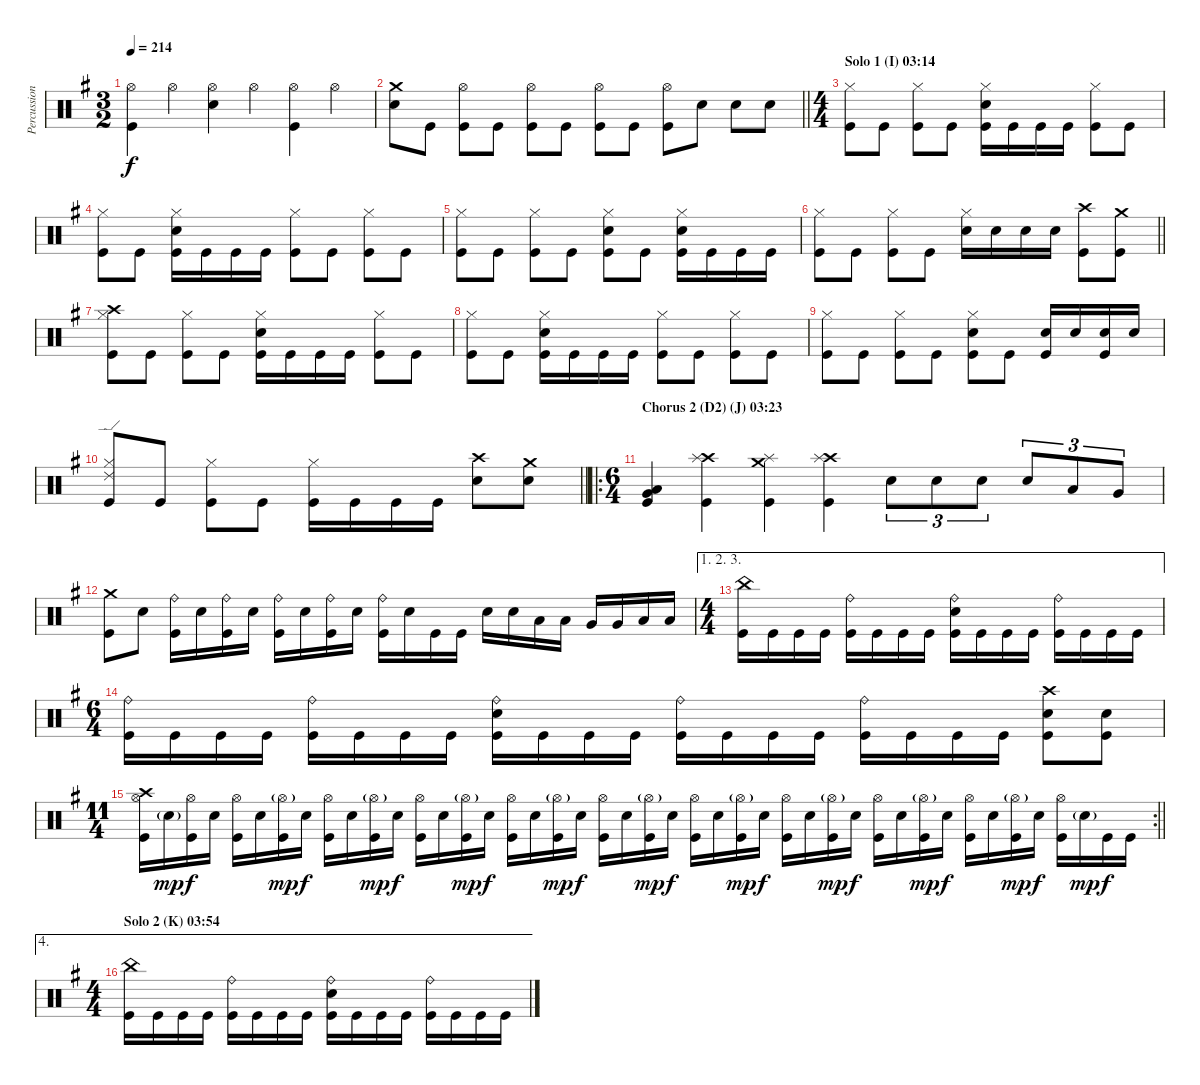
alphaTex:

\track ("Percussion" "Percussion") {instrument percussion}
\staff {score}
\articulation defaults
\ts (3 2)
\tempo 214
\clef neutral
\ks eminor
("Hi-Hat (open)" "Kick (hit)").4{dy f} "Hi-Hat (open)".4 ("Hi-Hat (open)" "Snare (hit) 2").4 "Hi-Hat (open)".4 ("Hi-Hat (open)" "Kick (hit)").4 "Hi-Hat (open)".4 |
\barLineRight lightlight
("Crash medium (hit)" "Snare (hit) 2").8 "Kick (hit)".8 ("Hi-Hat (open)" "Kick (hit)").8 "Kick (hit)".8 ("Hi-Hat (open)" "Kick (hit)").8 "Kick (hit)".8 ("Hi-Hat (open)" "Kick (hit)").8 "Kick (hit)".8 ("Hi-Hat (open)" "Kick (hit)").8 "Snare (hit) 2".8 "Snare (hit) 2".8 "Snare (hit) 2".8 |
\ts (4 4)
\section ("" "Solo 1 (I) 03:14")
("Hi-Hat (closed)" "Kick (hit)").8 "Kick (hit)".8 ("Hi-Hat (closed)" "Kick (hit)").8 "Kick (hit)".8 ("Hi-Hat (closed)" "Snare (hit) 2" "Kick (hit)").16 "Kick (hit)".16 "Kick (hit)".16 "Kick (hit)".16 ("Hi-Hat (closed)" "Kick (hit)").8 "Kick (hit)".8 |
("Hi-Hat (closed)" "Kick (hit)").8 "Kick (hit)".8 ("Hi-Hat (closed)" "Snare (hit) 2" "Kick (hit)").16 "Kick (hit)".16 "Kick (hit)".16 "Kick (hit)".16 ("Hi-Hat (closed)" "Kick (hit)").8 "Kick (hit)".8 ("Hi-Hat (closed)" "Kick (hit)").8 "Kick (hit)".8 |
("Hi-Hat (closed)" "Kick (hit)").8 "Kick (hit)".8 ("Hi-Hat (closed)" "Kick (hit)").8 "Kick (hit)".8 ("Hi-Hat (closed)" "Snare (hit) 2" "Kick (hit)").8 "Kick (hit)".8 ("Hi-Hat (closed)" "Snare (hit) 2" "Kick (hit)").16 "Kick (hit)".16 "Kick (hit)".16 "Kick (hit)".16 |
\barLineRight lightlight
("Hi-Hat (closed)" "Kick (hit)").8 "Kick (hit)".8 ("Hi-Hat (closed)" "Kick (hit)").8 "Kick (hit)".8 ("Hi-Hat (closed)" "Snare (hit) 2").16 "Snare (hit) 2".16 "Snare (hit) 2".16 "Snare (hit) 2".16 ("Crash high (hit)" "Kick (hit)").8 ("Crash medium (hit)" "Kick (hit)").8 |
("Crash high (hit)" "Hi-Hat (closed)" "Kick (hit)").8 "Kick (hit)".8 ("Hi-Hat (closed)" "Kick (hit)").8 "Kick (hit)".8 ("Hi-Hat (closed)" "Snare (hit) 2" "Kick (hit)").16 "Kick (hit)".16 "Kick (hit)".16 "Kick (hit)".16 ("Hi-Hat (closed)" "Kick (hit)").8 "Kick (hit)".8 |
("Hi-Hat (closed)" "Kick (hit)").8 "Kick (hit)".8 ("Hi-Hat (closed)" "Snare (hit) 2" "Kick (hit)").16 "Kick (hit)".16 "Kick (hit)".16 "Kick (hit)".16 ("Hi-Hat (closed)" "Kick (hit)").8 "Kick (hit)".8 ("Hi-Hat (closed)" "Kick (hit)").8 "Kick (hit)".8 |
("Hi-Hat (closed)" "Kick (hit)").8 "Kick (hit)".8 ("Hi-Hat (closed)" "Kick (hit)").8 "Kick (hit)".8 ("Hi-Hat (closed)" "Snare (hit) 2" "Kick (hit)").8 "Kick (hit)".8 ("Snare (hit) 2" "Kick (hit)").16 "Snare (hit) 2".16 ("Snare (hit) 2" "Kick (hit)").16 "Snare (hit) 2".16 |
\barLineRight lightlight
("Ride (edge) 2" "Hi-Hat (closed)" "Kick (hit)").8 "Kick (hit)".8 ("Hi-Hat (closed)" "Kick (hit)").8 "Kick (hit)".8 ("Hi-Hat (closed)" "Kick (hit)").16 "Kick (hit)".16 "Kick (hit)".16 "Kick (hit)".16 ("Crash high (hit)" "Snare (hit) 2").8 ("Crash medium (hit)" "Snare (hit) 2").8 |
\ro
\ts (6 4)
\section ("" "Chorus 2 (D2) (J) 03:23")
("Very Low Tom (hit)" "Low Floor Tom (hit)" "Kick (hit)").4 ("Crash high (hit)" "Splash (hit)" "Kick (hit)").4 ("Crash medium (hit)" "Splash (hit)" "Kick (hit)").4 ("Crash high (hit)" "Splash (hit)" "Kick (hit)").4 "Snare (hit) 2".8{tu (3 2)} "Snare (hit) 2".8{tu (3 2)} "Snare (hit) 2".8{tu (3 2)} "Snare (hit) 2".8{tu (3 2)} "Low Tom (hit)".8{tu (3 2)} "Very Low Tom (hit)".8{tu (3 2)} |
("Crash medium (hit)" "Kick (hit)").8 "Snare (hit) 2".8 ("Ride (bell)" "Kick (hit)").16 "Snare (hit) 2".16 ("Ride (bell)" "Kick (hit)").16 "Snare (hit) 2".16 ("Ride (bell)" "Kick (hit)").16 "Snare (hit) 2".16 ("Ride (bell)" "Kick (hit)").16 "Snare (hit) 2".16 ("Ride (bell)" "Kick (hit)").16 "Snare (hit) 2".16 "Kick (hit)".16 "Kick (hit)".16 "Snare (hit) 2".16 "Snare (hit) 2".16 "Low Tom (hit)".16 "Low Tom (hit)".16 "Very Low Tom (hit)".16 "Very Low Tom (hit)".16 "Low Floor Tom (hit)".16 "Low Floor Tom (hit)".16 |
\ae (1 2 3)
\ts (4 4)
("China (hit)" "Kick (hit)").16 "Kick (hit)".16 "Kick (hit)".16 "Kick (hit)".16 ("Ride (bell)" "Kick (hit)").16 "Kick (hit)".16 "Kick (hit)".16 "Kick (hit)".16 ("Ride (bell)" "Snare (hit) 2" "Kick (hit)").16 "Kick (hit)".16 "Kick (hit)".16 "Kick (hit)".16 ("Ride (bell)" "Kick (hit)").16 "Kick (hit)".16 "Kick (hit)".16 "Kick (hit)".16 |
\ts (6 4)
("Ride (bell)" "Kick (hit)").16 "Kick (hit)".16 "Kick (hit)".16 "Kick (hit)".16 ("Ride (bell)" "Kick (hit)").16 "Kick (hit)".16 "Kick (hit)".16 "Kick (hit)".16 ("Ride (bell)" "Snare (hit) 2" "Kick (hit)").16 "Kick (hit)".16 "Kick (hit)".16 "Kick (hit)".16 ("Ride (bell)" "Kick (hit)").16 "Kick (hit)".16 "Kick (hit)".16 "Kick (hit)".16 ("Ride (bell)" "Kick (hit)").16 "Kick (hit)".16 "Kick (hit)".16 "Kick (hit)".16 ("Crash high (hit)" "Snare (hit) 2" "Kick (hit)").8 ("Snare (hit) 2" "Kick (hit)").8 |
\rc 2
\ts (11 4)
\barLineRight lightlight
("Crash high (hit)" "Hi-Hat (open)" "Kick (hit)").16 "Snare (hit) 2"{g}.16{dy mp} ("Hi-Hat (open)" "Kick (hit)").16{dy f} "Snare (hit) 2".16 ("Hi-Hat (open)" "Kick (hit)").16 "Snare (hit) 2".16 ("Hi-Hat (open)"{g} "Kick (hit)").16{dy mp} "Snare (hit) 2".16{dy f} ("Hi-Hat (open)" "Kick (hit)").16 "Snare (hit) 2".16 ("Hi-Hat (open)"{g} "Kick (hit)").16{dy mp} "Snare (hit) 2".16{dy f} ("Hi-Hat (open)" "Kick (hit)").16 "Snare (hit) 2".16 ("Hi-Hat (open)"{g} "Kick (hit)").16{dy mp} "Snare (hit) 2".16{dy f} ("Hi-Hat (open)" "Kick (hit)").16 "Snare (hit) 2".16 ("Hi-Hat (open)"{g} "Kick (hit)").16{dy mp} "Snare (hit) 2".16{dy f} ("Hi-Hat (open)" "Kick (hit)").16 "Snare (hit) 2".16 ("Hi-Hat (open)"{g} "Kick (hit)").16{dy mp} "Snare (hit) 2".16{dy f} ("Hi-Hat (open)" "Kick (hit)").16 "Snare (hit) 2".16 ("Hi-Hat (open)"{g} "Kick (hit)").16{dy mp} "Snare (hit) 2".16{dy f} ("Hi-Hat (open)" "Kick (hit)").16 "Snare (hit) 2".16 ("Hi-Hat (open)"{g} "Kick (hit)").16{dy mp} "Snare (hit) 2".16{dy f} ("Hi-Hat (open)" "Kick (hit)").16 "Snare (hit) 2".16 ("Hi-Hat (open)"{g} "Kick (hit)").16{dy mp} "Snare (hit) 2".16{dy f} ("Hi-Hat (open)" "Kick (hit)").16 "Snare (hit) 2".16 ("Hi-Hat (open)"{g} "Kick (hit)").16{dy mp} "Snare (hit) 2".16{dy f} ("Hi-Hat (open)" "Kick (hit)").16 "Snare (hit) 2"{g}.16{dy mp} "Kick (hit)".16{dy f} "Kick (hit)".16 |
\ae 4
\ts (4 4)
\section ("" "Solo 2 (K) 03:54")
("China (hit)" "Kick (hit)").16 "Kick (hit)".16 "Kick (hit)".16 "Kick (hit)".16 ("Ride (bell)" "Kick (hit)").16 "Kick (hit)".16 "Kick (hit)".16 "Kick (hit)".16 ("Ride (bell)" "Snare (hit) 2" "Kick (hit)").16 "Kick (hit)".16 "Kick (hit)".16 "Kick (hit)".16 ("Ride (bell)" "Kick (hit)").16 "Kick (hit)".16 "Kick (hit)".16 "Kick (hit)".16
